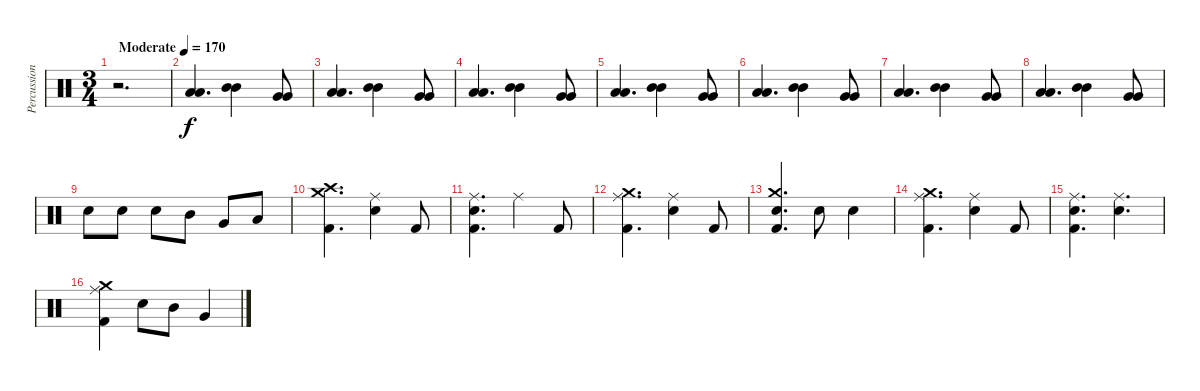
\track ("Percussion" "Percussion") {instrument percussion}
\staff {score}
\articulation defaults
\ts (3 4)
\tempo (170 "Moderate")
\clef neutral
\ks c
r.2{d dy f} |
("Low Floor Tom (hit)" "Low Floor Tom (hit)").4{d} ("Mid Tom (hit)" "Mid Tom (hit)").4 ("Very Low Tom (hit)" "Very Low Tom (hit)").8 |
("Low Floor Tom (hit)" "Low Floor Tom (hit)").4{d} ("Mid Tom (hit)" "Mid Tom (hit)").4 ("Very Low Tom (hit)" "Very Low Tom (hit)").8 |
("Low Floor Tom (hit)" "Low Floor Tom (hit)").4{d} ("Mid Tom (hit)" "Mid Tom (hit)").4 ("Very Low Tom (hit)" "Very Low Tom (hit)").8 |
("Low Floor Tom (hit)" "Low Floor Tom (hit)").4{d} ("Mid Tom (hit)" "Mid Tom (hit)").4 ("Very Low Tom (hit)" "Very Low Tom (hit)").8 |
("Low Floor Tom (hit)" "Low Floor Tom (hit)").4{d} ("Mid Tom (hit)" "Mid Tom (hit)").4 ("Very Low Tom (hit)" "Very Low Tom (hit)").8 |
("Low Floor Tom (hit)" "Low Floor Tom (hit)").4{d} ("Mid Tom (hit)" "Mid Tom (hit)").4 ("Very Low Tom (hit)" "Very Low Tom (hit)").8 |
("Low Floor Tom (hit)" "Low Floor Tom (hit)").4{d} ("Mid Tom (hit)" "Mid Tom (hit)").4 ("Very Low Tom (hit)" "Very Low Tom (hit)").8 |
"Electric Snare (hit)".8 "Electric Snare (hit)".8 "Electric Snare (hit)".8 "Mid Tom (hit)".8 "Very Low Tom (hit)".8 "Low Floor Tom (hit)".8 |
("Crash medium (hit)" "Crash high (hit)" "Kick (hit) 2").4{d} ("Ride (middle)" "Electric Snare (hit)").4 "Kick (hit) 2".8 |
("Ride (middle)" "Electric Snare (hit)" "Kick (hit) 2").4{d} "Ride (middle)".4 "Kick (hit) 2".8 |
("Ride (middle)" "Crash medium (hit)" "Kick (hit) 2").4{d} ("Ride (middle)" "Electric Snare (hit)").4 "Kick (hit) 2".8 |
("Crash medium (hit)" "Electric Snare (hit)" "Kick (hit) 2").4{d} "Electric Snare (hit)".8 "Electric Snare (hit)".4 |
("Ride (middle)" "Crash medium (hit)" "Kick (hit) 2").4{d} ("Ride (middle)" "Electric Snare (hit)").4 "Kick (hit) 2".8 |
("Ride (middle)" "Electric Snare (hit)" "Kick (hit) 2").4{d} ("Ride (middle)" "Electric Snare (hit)").4{d} |
("Ride (middle)" "Crash medium (hit)" "Kick (hit) 2").4 "Electric Snare (hit)".8 "Mid Tom (hit)".8 "Very Low Tom (hit)".4
